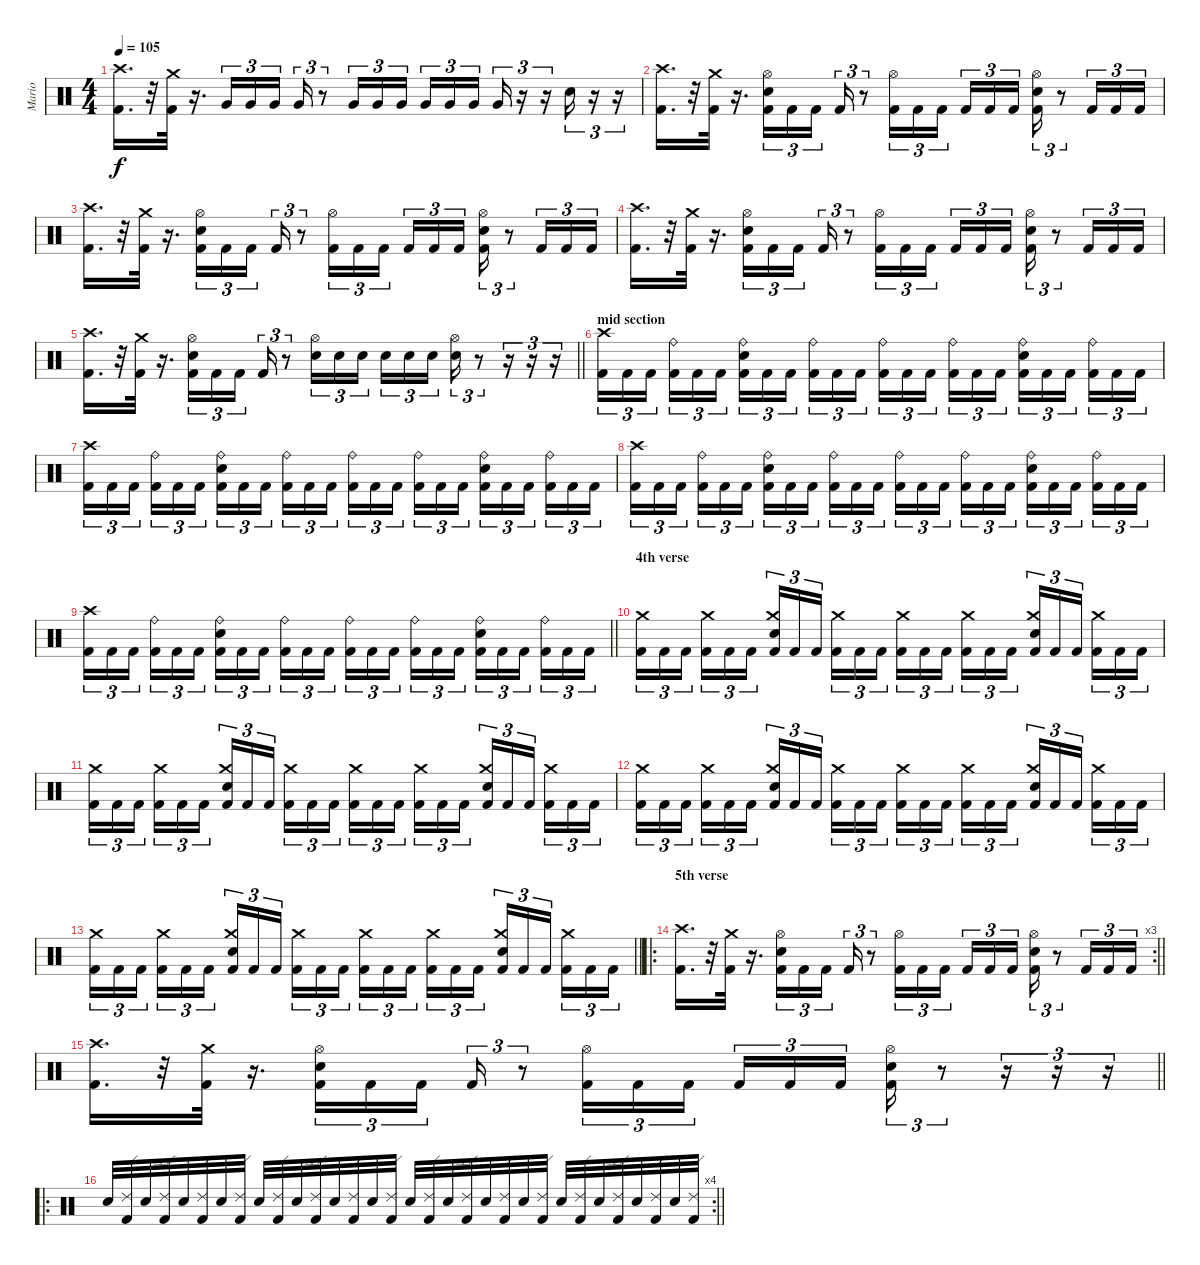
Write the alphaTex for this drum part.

\track ("Mario" "Mario") {instrument percussion}
\staff {score}
\articulation defaults
\ts (4 4)
\tempo 105
\clef neutral
\ks c
("Crash high (hit)" "Kick (hit) 2").16{d dy f} r.32 ("Crash medium (hit)" "Kick (hit) 2").32 r.16{d} "Very Low Tom (hit)".16{tu (3 2)} "Very Low Tom (hit)".16{tu (3 2)} "Very Low Tom (hit)".16{tu (3 2) beam splitsecondary} "Very Low Tom (hit)".16{tu (3 2)} r.8{tu (3 2)} "Very Low Tom (hit)".16{tu (3 2)} "Very Low Tom (hit)".16{tu (3 2)} "Very Low Tom (hit)".16{tu (3 2) beam splitsecondary} "Very Low Tom (hit)".16{tu (3 2)} "Very Low Tom (hit)".16{tu (3 2)} "Very Low Tom (hit)".16{tu (3 2)} "Very Low Tom (hit)".16{tu (3 2)} r.16{tu (3 2)} r.16{tu (3 2)} "Snare (hit) 2".16{tu (3 2)} r.16{tu (3 2)} r.16{tu (3 2)} |
("Crash high (hit)" "Kick (hit) 2").16{d} r.32 ("Crash medium (hit)" "Kick (hit) 2").32 r.16{d} ("Hi-Hat (open)" "Snare (hit) 2" "Kick (hit) 2").16{tu (3 2)} "Kick (hit) 2".16{tu (3 2)} "Kick (hit) 2".16{tu (3 2) beam splitsecondary} "Kick (hit) 2".16{tu (3 2)} r.8{tu (3 2)} ("Hi-Hat (open)" "Kick (hit) 2").16{tu (3 2)} "Kick (hit) 2".16{tu (3 2)} "Kick (hit) 2".16{tu (3 2) beam splitsecondary} "Kick (hit) 2".16{tu (3 2)} "Kick (hit) 2".16{tu (3 2)} "Kick (hit) 2".16{tu (3 2)} ("Hi-Hat (open)" "Snare (hit) 2" "Kick (hit) 2").16{tu (3 2)} r.8{tu (3 2)} "Kick (hit) 2".16{tu (3 2)} "Kick (hit) 2".16{tu (3 2)} "Kick (hit) 2".16{tu (3 2)} |
("Crash high (hit)" "Kick (hit) 2").16{d} r.32 ("Crash medium (hit)" "Kick (hit) 2").32 r.16{d} ("Hi-Hat (open)" "Snare (hit) 2" "Kick (hit) 2").16{tu (3 2)} "Kick (hit) 2".16{tu (3 2)} "Kick (hit) 2".16{tu (3 2) beam splitsecondary} "Kick (hit) 2".16{tu (3 2)} r.8{tu (3 2)} ("Hi-Hat (open)" "Kick (hit) 2").16{tu (3 2)} "Kick (hit) 2".16{tu (3 2)} "Kick (hit) 2".16{tu (3 2) beam splitsecondary} "Kick (hit) 2".16{tu (3 2)} "Kick (hit) 2".16{tu (3 2)} "Kick (hit) 2".16{tu (3 2)} ("Hi-Hat (open)" "Snare (hit) 2" "Kick (hit) 2").16{tu (3 2)} r.8{tu (3 2)} "Kick (hit) 2".16{tu (3 2)} "Kick (hit) 2".16{tu (3 2)} "Kick (hit) 2".16{tu (3 2)} |
("Crash high (hit)" "Kick (hit) 2").16{d} r.32 ("Crash medium (hit)" "Kick (hit) 2").32 r.16{d} ("Hi-Hat (open)" "Snare (hit) 2" "Kick (hit) 2").16{tu (3 2)} "Kick (hit) 2".16{tu (3 2)} "Kick (hit) 2".16{tu (3 2) beam splitsecondary} "Kick (hit) 2".16{tu (3 2)} r.8{tu (3 2)} ("Hi-Hat (open)" "Kick (hit) 2").16{tu (3 2)} "Kick (hit) 2".16{tu (3 2)} "Kick (hit) 2".16{tu (3 2) beam splitsecondary} "Kick (hit) 2".16{tu (3 2)} "Kick (hit) 2".16{tu (3 2)} "Kick (hit) 2".16{tu (3 2)} ("Hi-Hat (open)" "Snare (hit) 2" "Kick (hit) 2").16{tu (3 2)} r.8{tu (3 2)} "Kick (hit) 2".16{tu (3 2)} "Kick (hit) 2".16{tu (3 2)} "Kick (hit) 2".16{tu (3 2)} |
\barLineRight lightlight
("Crash high (hit)" "Kick (hit) 2").16{d} r.32 ("Crash medium (hit)" "Kick (hit) 2").32 r.16{d} ("Hi-Hat (open)" "Snare (hit) 2" "Kick (hit) 2").16{tu (3 2)} "Kick (hit) 2".16{tu (3 2)} "Kick (hit) 2".16{tu (3 2) beam splitsecondary} "Kick (hit) 2".16{tu (3 2)} r.8{tu (3 2)} ("Hi-Hat (open)" "Snare (hit) 2").16{tu (3 2)} "Snare (hit) 2".16{tu (3 2)} "Snare (hit) 2".16{tu (3 2) beam splitsecondary} "Snare (hit) 2".16{tu (3 2)} "Snare (hit) 2".16{tu (3 2)} "Snare (hit) 2".16{tu (3 2)} ("Hi-Hat (open)" "Snare (hit) 2").16{tu (3 2)} r.8{tu (3 2)} r.16{tu (3 2)} r.16{tu (3 2)} r.16{tu (3 2)} |
\section ("" "mid section")
("Crash high (hit)" "Kick (hit) 2").16{tu (3 2)} "Kick (hit) 2".16{tu (3 2)} "Kick (hit) 2".16{tu (3 2) beam splitsecondary} ("Ride (bell)" "Kick (hit) 2").16{tu (3 2)} "Kick (hit) 2".16{tu (3 2)} "Kick (hit) 2".16{tu (3 2)} ("Ride (bell)" "Snare (hit) 2" "Kick (hit) 2").16{tu (3 2)} "Kick (hit) 2".16{tu (3 2)} "Kick (hit) 2".16{tu (3 2) beam splitsecondary} ("Ride (bell)" "Kick (hit) 2").16{tu (3 2)} "Kick (hit) 2".16{tu (3 2)} "Kick (hit) 2".16{tu (3 2)} ("Ride (bell)" "Kick (hit) 2").16{tu (3 2)} "Kick (hit) 2".16{tu (3 2)} "Kick (hit) 2".16{tu (3 2) beam splitsecondary} ("Ride (bell)" "Kick (hit) 2").16{tu (3 2)} "Kick (hit) 2".16{tu (3 2)} "Kick (hit) 2".16{tu (3 2)} ("Ride (bell)" "Snare (hit) 2" "Kick (hit) 2").16{tu (3 2)} "Kick (hit) 2".16{tu (3 2)} "Kick (hit) 2".16{tu (3 2) beam splitsecondary} ("Ride (bell)" "Kick (hit) 2").16{tu (3 2)} "Kick (hit) 2".16{tu (3 2)} "Kick (hit) 2".16{tu (3 2)} |
("Crash high (hit)" "Kick (hit) 2").16{tu (3 2)} "Kick (hit) 2".16{tu (3 2)} "Kick (hit) 2".16{tu (3 2) beam splitsecondary} ("Ride (bell)" "Kick (hit) 2").16{tu (3 2)} "Kick (hit) 2".16{tu (3 2)} "Kick (hit) 2".16{tu (3 2)} ("Ride (bell)" "Snare (hit) 2" "Kick (hit) 2").16{tu (3 2)} "Kick (hit) 2".16{tu (3 2)} "Kick (hit) 2".16{tu (3 2) beam splitsecondary} ("Ride (bell)" "Kick (hit) 2").16{tu (3 2)} "Kick (hit) 2".16{tu (3 2)} "Kick (hit) 2".16{tu (3 2)} ("Ride (bell)" "Kick (hit) 2").16{tu (3 2)} "Kick (hit) 2".16{tu (3 2)} "Kick (hit) 2".16{tu (3 2) beam splitsecondary} ("Ride (bell)" "Kick (hit) 2").16{tu (3 2)} "Kick (hit) 2".16{tu (3 2)} "Kick (hit) 2".16{tu (3 2)} ("Ride (bell)" "Snare (hit) 2" "Kick (hit) 2").16{tu (3 2)} "Kick (hit) 2".16{tu (3 2)} "Kick (hit) 2".16{tu (3 2) beam splitsecondary} ("Ride (bell)" "Kick (hit) 2").16{tu (3 2)} "Kick (hit) 2".16{tu (3 2)} "Kick (hit) 2".16{tu (3 2)} |
("Crash high (hit)" "Kick (hit) 2").16{tu (3 2)} "Kick (hit) 2".16{tu (3 2)} "Kick (hit) 2".16{tu (3 2) beam splitsecondary} ("Ride (bell)" "Kick (hit) 2").16{tu (3 2)} "Kick (hit) 2".16{tu (3 2)} "Kick (hit) 2".16{tu (3 2)} ("Ride (bell)" "Snare (hit) 2" "Kick (hit) 2").16{tu (3 2)} "Kick (hit) 2".16{tu (3 2)} "Kick (hit) 2".16{tu (3 2) beam splitsecondary} ("Ride (bell)" "Kick (hit) 2").16{tu (3 2)} "Kick (hit) 2".16{tu (3 2)} "Kick (hit) 2".16{tu (3 2)} ("Ride (bell)" "Kick (hit) 2").16{tu (3 2)} "Kick (hit) 2".16{tu (3 2)} "Kick (hit) 2".16{tu (3 2) beam splitsecondary} ("Ride (bell)" "Kick (hit) 2").16{tu (3 2)} "Kick (hit) 2".16{tu (3 2)} "Kick (hit) 2".16{tu (3 2)} ("Ride (bell)" "Snare (hit) 2" "Kick (hit) 2").16{tu (3 2)} "Kick (hit) 2".16{tu (3 2)} "Kick (hit) 2".16{tu (3 2) beam splitsecondary} ("Ride (bell)" "Kick (hit) 2").16{tu (3 2)} "Kick (hit) 2".16{tu (3 2)} "Kick (hit) 2".16{tu (3 2)} |
\barLineRight lightlight
("Crash high (hit)" "Kick (hit) 2").16{tu (3 2)} "Kick (hit) 2".16{tu (3 2)} "Kick (hit) 2".16{tu (3 2) beam splitsecondary} ("Ride (bell)" "Kick (hit) 2").16{tu (3 2)} "Kick (hit) 2".16{tu (3 2)} "Kick (hit) 2".16{tu (3 2)} ("Ride (bell)" "Snare (hit) 2" "Kick (hit) 2").16{tu (3 2)} "Kick (hit) 2".16{tu (3 2)} "Kick (hit) 2".16{tu (3 2) beam splitsecondary} ("Ride (bell)" "Kick (hit) 2").16{tu (3 2)} "Kick (hit) 2".16{tu (3 2)} "Kick (hit) 2".16{tu (3 2)} ("Ride (bell)" "Kick (hit) 2").16{tu (3 2)} "Kick (hit) 2".16{tu (3 2)} "Kick (hit) 2".16{tu (3 2) beam splitsecondary} ("Ride (bell)" "Kick (hit) 2").16{tu (3 2)} "Kick (hit) 2".16{tu (3 2)} "Kick (hit) 2".16{tu (3 2)} ("Ride (bell)" "Snare (hit) 2" "Kick (hit) 2").16{tu (3 2)} "Kick (hit) 2".16{tu (3 2)} "Kick (hit) 2".16{tu (3 2) beam splitsecondary} ("Ride (bell)" "Kick (hit) 2").16{tu (3 2)} "Kick (hit) 2".16{tu (3 2)} "Kick (hit) 2".16{tu (3 2)} |
\section ("" "4th verse")
("Crash medium (hit)" "Kick (hit) 2").16{tu (3 2)} "Kick (hit) 2".16{tu (3 2)} "Kick (hit) 2".16{tu (3 2) beam splitsecondary} ("Crash medium (hit)" "Kick (hit) 2").16{tu (3 2)} "Kick (hit) 2".16{tu (3 2)} "Kick (hit) 2".16{tu (3 2)} ("Crash medium (hit)" "Snare (hit) 2" "Kick (hit) 2").16{tu (3 2)} "Kick (hit) 2".16{tu (3 2)} "Kick (hit) 2".16{tu (3 2) beam splitsecondary} ("Crash medium (hit)" "Kick (hit) 2").16{tu (3 2)} "Kick (hit) 2".16{tu (3 2)} "Kick (hit) 2".16{tu (3 2)} ("Crash medium (hit)" "Kick (hit) 2").16{tu (3 2)} "Kick (hit) 2".16{tu (3 2)} "Kick (hit) 2".16{tu (3 2) beam splitsecondary} ("Crash medium (hit)" "Kick (hit) 2").16{tu (3 2)} "Kick (hit) 2".16{tu (3 2)} "Kick (hit) 2".16{tu (3 2)} ("Crash medium (hit)" "Snare (hit) 2" "Kick (hit) 2").16{tu (3 2)} "Kick (hit) 2".16{tu (3 2)} "Kick (hit) 2".16{tu (3 2) beam splitsecondary} ("Crash medium (hit)" "Kick (hit) 2").16{tu (3 2)} "Kick (hit) 2".16{tu (3 2)} "Kick (hit) 2".16{tu (3 2)} |
("Crash medium (hit)" "Kick (hit) 2").16{tu (3 2)} "Kick (hit) 2".16{tu (3 2)} "Kick (hit) 2".16{tu (3 2) beam splitsecondary} ("Crash medium (hit)" "Kick (hit) 2").16{tu (3 2)} "Kick (hit) 2".16{tu (3 2)} "Kick (hit) 2".16{tu (3 2)} ("Crash medium (hit)" "Snare (hit) 2" "Kick (hit) 2").16{tu (3 2)} "Kick (hit) 2".16{tu (3 2)} "Kick (hit) 2".16{tu (3 2) beam splitsecondary} ("Crash medium (hit)" "Kick (hit) 2").16{tu (3 2)} "Kick (hit) 2".16{tu (3 2)} "Kick (hit) 2".16{tu (3 2)} ("Crash medium (hit)" "Kick (hit) 2").16{tu (3 2)} "Kick (hit) 2".16{tu (3 2)} "Kick (hit) 2".16{tu (3 2) beam splitsecondary} ("Crash medium (hit)" "Kick (hit) 2").16{tu (3 2)} "Kick (hit) 2".16{tu (3 2)} "Kick (hit) 2".16{tu (3 2)} ("Crash medium (hit)" "Snare (hit) 2" "Kick (hit) 2").16{tu (3 2)} "Kick (hit) 2".16{tu (3 2)} "Kick (hit) 2".16{tu (3 2) beam splitsecondary} ("Crash medium (hit)" "Kick (hit) 2").16{tu (3 2)} "Kick (hit) 2".16{tu (3 2)} "Kick (hit) 2".16{tu (3 2)} |
("Crash medium (hit)" "Kick (hit) 2").16{tu (3 2)} "Kick (hit) 2".16{tu (3 2)} "Kick (hit) 2".16{tu (3 2) beam splitsecondary} ("Crash medium (hit)" "Kick (hit) 2").16{tu (3 2)} "Kick (hit) 2".16{tu (3 2)} "Kick (hit) 2".16{tu (3 2)} ("Crash medium (hit)" "Snare (hit) 2" "Kick (hit) 2").16{tu (3 2)} "Kick (hit) 2".16{tu (3 2)} "Kick (hit) 2".16{tu (3 2) beam splitsecondary} ("Crash medium (hit)" "Kick (hit) 2").16{tu (3 2)} "Kick (hit) 2".16{tu (3 2)} "Kick (hit) 2".16{tu (3 2)} ("Crash medium (hit)" "Kick (hit) 2").16{tu (3 2)} "Kick (hit) 2".16{tu (3 2)} "Kick (hit) 2".16{tu (3 2) beam splitsecondary} ("Crash medium (hit)" "Kick (hit) 2").16{tu (3 2)} "Kick (hit) 2".16{tu (3 2)} "Kick (hit) 2".16{tu (3 2)} ("Crash medium (hit)" "Snare (hit) 2" "Kick (hit) 2").16{tu (3 2)} "Kick (hit) 2".16{tu (3 2)} "Kick (hit) 2".16{tu (3 2) beam splitsecondary} ("Crash medium (hit)" "Kick (hit) 2").16{tu (3 2)} "Kick (hit) 2".16{tu (3 2)} "Kick (hit) 2".16{tu (3 2)} |
\barLineRight lightlight
("Crash medium (hit)" "Kick (hit) 2").16{tu (3 2)} "Kick (hit) 2".16{tu (3 2)} "Kick (hit) 2".16{tu (3 2) beam splitsecondary} ("Crash medium (hit)" "Kick (hit) 2").16{tu (3 2)} "Kick (hit) 2".16{tu (3 2)} "Kick (hit) 2".16{tu (3 2)} ("Crash medium (hit)" "Snare (hit) 2" "Kick (hit) 2").16{tu (3 2)} "Kick (hit) 2".16{tu (3 2)} "Kick (hit) 2".16{tu (3 2) beam splitsecondary} ("Crash medium (hit)" "Kick (hit) 2").16{tu (3 2)} "Kick (hit) 2".16{tu (3 2)} "Kick (hit) 2".16{tu (3 2)} ("Crash medium (hit)" "Kick (hit) 2").16{tu (3 2)} "Kick (hit) 2".16{tu (3 2)} "Kick (hit) 2".16{tu (3 2) beam splitsecondary} ("Crash medium (hit)" "Kick (hit) 2").16{tu (3 2)} "Kick (hit) 2".16{tu (3 2)} "Kick (hit) 2".16{tu (3 2)} ("Crash medium (hit)" "Snare (hit) 2" "Kick (hit) 2").16{tu (3 2)} "Kick (hit) 2".16{tu (3 2)} "Kick (hit) 2".16{tu (3 2) beam splitsecondary} ("Crash medium (hit)" "Kick (hit) 2").16{tu (3 2)} "Kick (hit) 2".16{tu (3 2)} "Kick (hit) 2".16{tu (3 2)} |
\ro
\rc 3
\section ("" "5th verse")
\barLineRight lightlight
("Crash high (hit)" "Kick (hit) 2").16{d} r.32 ("Crash medium (hit)" "Kick (hit) 2").32 r.16{d} ("Hi-Hat (open)" "Snare (hit) 2" "Kick (hit) 2").16{tu (3 2)} "Kick (hit) 2".16{tu (3 2)} "Kick (hit) 2".16{tu (3 2) beam splitsecondary} "Kick (hit) 2".16{tu (3 2)} r.8{tu (3 2)} ("Hi-Hat (open)" "Kick (hit) 2").16{tu (3 2)} "Kick (hit) 2".16{tu (3 2)} "Kick (hit) 2".16{tu (3 2) beam splitsecondary} "Kick (hit) 2".16{tu (3 2)} "Kick (hit) 2".16{tu (3 2)} "Kick (hit) 2".16{tu (3 2)} ("Hi-Hat (open)" "Snare (hit) 2" "Kick (hit) 2").16{tu (3 2)} r.8{tu (3 2)} "Kick (hit) 2".16{tu (3 2)} "Kick (hit) 2".16{tu (3 2)} "Kick (hit) 2".16{tu (3 2)} |
\barLineRight lightlight
("Crash high (hit)" "Kick (hit) 2").16{d} r.32 ("Crash medium (hit)" "Kick (hit) 2").32 r.16{d} ("Hi-Hat (open)" "Snare (hit) 2" "Kick (hit) 2").16{tu (3 2)} "Kick (hit) 2".16{tu (3 2)} "Kick (hit) 2".16{tu (3 2) beam splitsecondary} "Kick (hit) 2".16{tu (3 2)} r.8{tu (3 2)} ("Hi-Hat (open)" "Kick (hit) 2").16{tu (3 2)} "Kick (hit) 2".16{tu (3 2)} "Kick (hit) 2".16{tu (3 2) beam splitsecondary} "Kick (hit) 2".16{tu (3 2)} "Kick (hit) 2".16{tu (3 2)} "Kick (hit) 2".16{tu (3 2)} ("Hi-Hat (open)" "Snare (hit) 2" "Kick (hit) 2").16{tu (3 2)} r.8{tu (3 2)} r.16{tu (3 2)} r.16{tu (3 2)} r.16{tu (3 2)} |
\ro
\rc 4
\section ("" "")
\barLineRight lightlight "Snare (hit) 2".32
("Ride (edge) 2" "Kick (hit) 2").32 "Snare (hit) 2".32 ("Ride (edge) 2" "Kick (hit) 2").32 "Snare (hit) 2".32 ("Ride (edge) 2" "Kick (hit) 2").32 "Snare (hit) 2".32 ("Ride (edge) 2" "Kick (hit) 2").32 "Snare (hit) 2".32 ("Ride (edge) 2" "Kick (hit) 2").32 "Snare (hit) 2".32 ("Ride (edge) 2" "Kick (hit) 2").32 "Snare (hit) 2".32 ("Ride (edge) 2" "Kick (hit) 2").32 "Snare (hit) 2".32 ("Ride (edge) 2" "Kick (hit) 2").32 "Snare (hit) 2".32 ("Ride (edge) 2" "Kick (hit) 2").32 "Snare (hit) 2".32 ("Ride (edge) 2" "Kick (hit) 2").32 "Snare (hit) 2".32 ("Ride (edge) 2" "Kick (hit) 2").32 "Snare (hit) 2".32 ("Ride (edge) 2" "Kick (hit) 2").32 "Snare (hit) 2".32 ("Ride (edge) 2" "Kick (hit) 2").32 "Snare (hit) 2".32 ("Ride (edge) 2" "Kick (hit) 2").32 "Snare (hit) 2".32 ("Ride (edge) 2" "Kick (hit) 2").32 "Snare (hit) 2".32 ("Ride (edge) 2" "Kick (hit) 2").32
